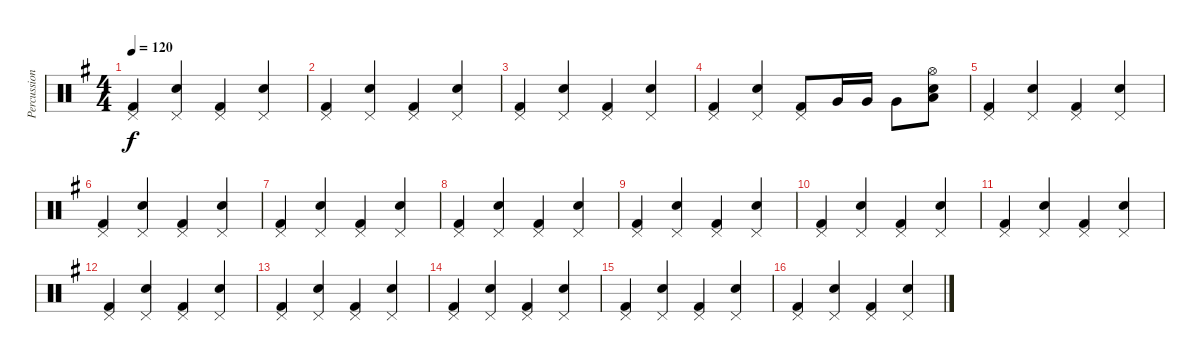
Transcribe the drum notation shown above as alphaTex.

\track ("Percussion" "Percussion") {instrument percussion}
\staff {score}
\articulation defaults
\ts (4 4)
\tempo 120
\clef neutral
\ks eminor
("Kick (hit) 2" "Pedal Hi-Hat (hit)").4{dy f} ("Snare (hit) 2" "Pedal Hi-Hat (hit)").4 ("Kick (hit) 2" "Pedal Hi-Hat (hit)").4 ("Snare (hit) 2" "Pedal Hi-Hat (hit)").4 |
("Kick (hit) 2" "Pedal Hi-Hat (hit)").4 ("Snare (hit) 2" "Pedal Hi-Hat (hit)").4 ("Kick (hit) 2" "Pedal Hi-Hat (hit)").4 ("Snare (hit) 2" "Pedal Hi-Hat (hit)").4 |
("Kick (hit) 2" "Pedal Hi-Hat (hit)").4 ("Snare (hit) 2" "Pedal Hi-Hat (hit)").4 ("Kick (hit) 2" "Pedal Hi-Hat (hit)").4 ("Snare (hit) 2" "Pedal Hi-Hat (hit)").4 |
("Kick (hit) 2" "Pedal Hi-Hat (hit)").4 ("Snare (hit) 2" "Pedal Hi-Hat (hit)").4 ("Kick (hit) 2" "Pedal Hi-Hat (hit)").8 "Very Low Tom (hit)".16 "Very Low Tom (hit)".16 "Very Low Tom (hit)".8 ("Snare (hit) 2" "Low Floor Tom (hit)" "Hi-Hat (open)").8 |
("Kick (hit) 2" "Pedal Hi-Hat (hit)").4 ("Snare (hit) 2" "Pedal Hi-Hat (hit)").4 ("Kick (hit) 2" "Pedal Hi-Hat (hit)").4 ("Snare (hit) 2" "Pedal Hi-Hat (hit)").4 |
("Kick (hit) 2" "Pedal Hi-Hat (hit)").4 ("Snare (hit) 2" "Pedal Hi-Hat (hit)").4 ("Kick (hit) 2" "Pedal Hi-Hat (hit)").4 ("Snare (hit) 2" "Pedal Hi-Hat (hit)").4 |
("Kick (hit) 2" "Pedal Hi-Hat (hit)").4 ("Snare (hit) 2" "Pedal Hi-Hat (hit)").4 ("Kick (hit) 2" "Pedal Hi-Hat (hit)").4 ("Snare (hit) 2" "Pedal Hi-Hat (hit)").4 |
("Kick (hit) 2" "Pedal Hi-Hat (hit)").4 ("Snare (hit) 2" "Pedal Hi-Hat (hit)").4 ("Kick (hit) 2" "Pedal Hi-Hat (hit)").4 ("Snare (hit) 2" "Pedal Hi-Hat (hit)").4 |
("Kick (hit) 2" "Pedal Hi-Hat (hit)").4 ("Snare (hit) 2" "Pedal Hi-Hat (hit)").4 ("Kick (hit) 2" "Pedal Hi-Hat (hit)").4 ("Snare (hit) 2" "Pedal Hi-Hat (hit)").4 |
("Kick (hit) 2" "Pedal Hi-Hat (hit)").4 ("Snare (hit) 2" "Pedal Hi-Hat (hit)").4 ("Kick (hit) 2" "Pedal Hi-Hat (hit)").4 ("Snare (hit) 2" "Pedal Hi-Hat (hit)").4 |
("Kick (hit) 2" "Pedal Hi-Hat (hit)").4 ("Snare (hit) 2" "Pedal Hi-Hat (hit)").4 ("Kick (hit) 2" "Pedal Hi-Hat (hit)").4 ("Snare (hit) 2" "Pedal Hi-Hat (hit)").4 |
("Kick (hit) 2" "Pedal Hi-Hat (hit)").4 ("Snare (hit) 2" "Pedal Hi-Hat (hit)").4 ("Kick (hit) 2" "Pedal Hi-Hat (hit)").4 ("Snare (hit) 2" "Pedal Hi-Hat (hit)").4 |
("Kick (hit) 2" "Pedal Hi-Hat (hit)").4 ("Snare (hit) 2" "Pedal Hi-Hat (hit)").4 ("Kick (hit) 2" "Pedal Hi-Hat (hit)").4 ("Snare (hit) 2" "Pedal Hi-Hat (hit)").4 |
("Kick (hit) 2" "Pedal Hi-Hat (hit)").4 ("Snare (hit) 2" "Pedal Hi-Hat (hit)").4 ("Kick (hit) 2" "Pedal Hi-Hat (hit)").4 ("Snare (hit) 2" "Pedal Hi-Hat (hit)").4 |
("Kick (hit) 2" "Pedal Hi-Hat (hit)").4 ("Snare (hit) 2" "Pedal Hi-Hat (hit)").4 ("Kick (hit) 2" "Pedal Hi-Hat (hit)").4 ("Snare (hit) 2" "Pedal Hi-Hat (hit)").4 |
("Kick (hit) 2" "Pedal Hi-Hat (hit)").4 ("Snare (hit) 2" "Pedal Hi-Hat (hit)").4 ("Kick (hit) 2" "Pedal Hi-Hat (hit)").4 ("Snare (hit) 2" "Pedal Hi-Hat (hit)").4
